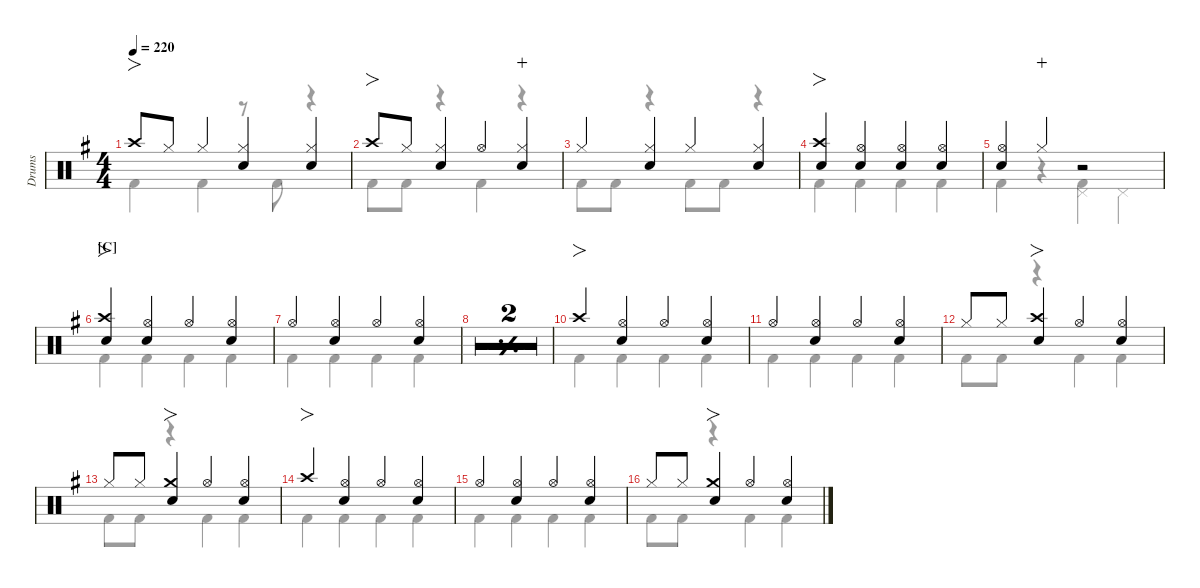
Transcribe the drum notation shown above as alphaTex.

\hideDynamics
\bracketExtendMode nobrackets
\multiBarRest
\otherSystemsTrackNameOrientation horizontal
\track ("Drums" "Drums") {defaultSystemsLayout 4 multiBarRest instrument percussion}
\staff {score}
\articulation defaults
\voice
\ts (4 4)
\tempo 220
\clef neutral
\scale
0.97879
\ks g "Crash high (hit)"{acc forcenatural}.8{fo dy f beam Up} "Hi-Hat (closed)"{acc forcenatural}.8{dy mp beam Up} "Hi-Hat (closed)"{acc forcenatural}.4{dy f beam Up}
("Hi-Hat (closed)"{acc forcenatural} "Snare (hit) 2"{acc forcenatural}).4{beam Up} ("Hi-Hat (closed)"{acc forcenatural} "Snare (hit) 2"{acc forcenatural}).4{beam Up} |
\scale
1.05921 "Crash high (hit)"{acc forcenatural}.8{fo beam Up} "Hi-Hat (closed)"{acc forcenatural}.8{dy mp beam Up} ("Hi-Hat (closed)"{acc forcenatural} "Snare (hit) 2"{acc forcenatural}).4{dy f beam Up} "Hi-Hat (open)"{acc forcenatural}.4{beam Up} ("Snare (hit) 2"{acc forcenatural} "Hi-Hat (closed)"{acc forcenatural}).4{wahc beam Up} |
\scale
0.974368 "Hi-Hat (closed)"{acc forcenatural}.4{beam Up} ("Hi-Hat (closed)"{acc forcenatural} "Snare (hit) 2"{acc forcenatural}).4{beam Up} "Hi-Hat (closed)"{acc forcenatural}.4{beam Up} ("Hi-Hat (closed)"{acc forcenatural} "Snare (hit) 2"{acc forcenatural}).4{beam Up} |
\scale
0.974368 ("Crash high (hit)"{acc forcenatural} "Snare (hit) 2"{acc forcenatural}).4{fo beam Up} ("Hi-Hat (open)"{acc forcenatural} "Snare (hit) 2"{acc forcenatural}).4{beam Up} ("Hi-Hat (open)"{acc forcenatural} "Snare (hit) 2"{acc forcenatural}).4{beam Up} ("Hi-Hat (open)"{acc forcenatural} "Snare (hit) 2"{acc forcenatural}).4{beam Up} |
\scale
0.992053 ("Hi-Hat (open)"{acc forcenatural} "Snare (hit) 2"{acc forcenatural}).4{beam Up} "Hi-Hat (closed)"{acc forcenatural}.4{dy mp wahc beam Up} r.2{beam Up} |
\section ("C" "")
\scale
1.06363 ("Crash high (hit)"{acc forcenatural} "Snare (hit) 2"{acc forcenatural}).4{fo dy f beam Up} ("Hi-Hat (open)"{acc forcenatural} "Snare (hit) 2"{acc forcenatural}).4{beam Up} "Hi-Hat (open)"{acc forcenatural}.4{beam Up} ("Hi-Hat (open)"{acc forcenatural} "Snare (hit) 2"{acc forcenatural}).4{beam Up} |
\scale
0.97879 "Hi-Hat (open)"{acc forcenatural}.4{beam Up} ("Hi-Hat (open)"{acc forcenatural} "Snare (hit) 2"{acc forcenatural}).4{beam Up} "Hi-Hat (open)"{acc forcenatural}.4{beam Up} ("Hi-Hat (open)"{acc forcenatural} "Snare (hit) 2"{acc forcenatural}).4{beam Up} |
\simile simple
\scale
0.97879 |
\scale
0.97879 |
\simile none
\scale
1.06363 "Crash high (hit)"{acc forcenatural}.4{fo beam Up} ("Hi-Hat (open)"{acc forcenatural} "Snare (hit) 2"{acc forcenatural}).4{beam Up} "Hi-Hat (open)"{acc forcenatural}.4{beam Up} ("Hi-Hat (open)"{acc forcenatural} "Snare (hit) 2"{acc forcenatural}).4{beam Up} |
\scale
0.97879 "Hi-Hat (open)"{acc forcenatural}.4{beam Up} ("Hi-Hat (open)"{acc forcenatural} "Snare (hit) 2"{acc forcenatural}).4{beam Up} "Hi-Hat (open)"{acc forcenatural}.4{beam Up} ("Hi-Hat (open)"{acc forcenatural} "Snare (hit) 2"{acc forcenatural}).4{beam Up} |
\scale
0.97879 "Hi-Hat (closed)"{acc forcenatural}.8{beam Up} "Hi-Hat (closed)"{acc forcenatural}.8{dy mf beam Up} ("Crash high (hit)"{acc forcenatural} "Snare (hit) 2"{acc forcenatural}).4{fo dy f beam Up} "Hi-Hat (open)"{acc forcenatural}.4{beam Up} ("Hi-Hat (open)"{acc forcenatural} "Snare (hit) 2"{acc forcenatural}).4{beam Up} |
\scale
0.97879 "Hi-Hat (closed)"{acc forcenatural}.8{beam Up} "Hi-Hat (closed)"{acc forcenatural}.8{dy mf beam Up} ("Crash medium (hit)"{acc forcenatural} "Snare (hit) 2"{acc forcenatural}).4{fo dy f beam Up} "Hi-Hat (open)"{acc forcenatural}.4{beam Up} ("Hi-Hat (open)"{acc forcenatural} "Snare (hit) 2"{acc forcenatural}).4{beam Up} |
\scale
1.06363 "Crash high (hit)"{acc forcenatural}.4{fo beam Up} ("Hi-Hat (open)"{acc forcenatural} "Snare (hit) 2"{acc forcenatural}).4{beam Up} "Hi-Hat (open)"{acc forcenatural}.4{beam Up} ("Hi-Hat (open)"{acc forcenatural} "Snare (hit) 2"{acc forcenatural}).4{beam Up} |
\scale
0.97879 "Hi-Hat (open)"{acc forcenatural}.4{beam Up} ("Hi-Hat (open)"{acc forcenatural} "Snare (hit) 2"{acc forcenatural}).4{beam Up} "Hi-Hat (open)"{acc forcenatural}.4{beam Up} ("Hi-Hat (open)"{acc forcenatural} "Snare (hit) 2"{acc forcenatural}).4{beam Up} |
\scale
0.97879 "Hi-Hat (closed)"{acc forcenatural}.8{beam Up} "Hi-Hat (closed)"{acc forcenatural}.8{dy mf beam Up} ("Crash medium (hit)"{acc forcenatural} "Snare (hit) 2"{acc forcenatural}).4{fo dy f beam Up} "Hi-Hat (open)"{acc forcenatural}.4{beam Up} ("Hi-Hat (open)"{acc forcenatural} "Snare (hit) 2"{acc forcenatural}).4{beam Up}
\voice
\clef neutral
\ottava regular
\simile none
\scale
0.97879
\ks g "Kick (hit) 2"{acc forcenatural}.4{dy f beam Down} "Kick (hit) 2"{acc forcenatural}.4{beam Down}
r.8{beam Down} "Kick (hit) 2"{acc forcenatural}.8{beam Down} r.4{beam Down} |
\scale
1.05921 "Kick (hit) 2"{acc forcenatural}.8{beam Down} "Kick (hit) 2"{acc forcenatural}.8{beam Down} r.4{beam Down} "Kick (hit) 2"{acc forcenatural}.4{beam Down} r.4{beam Down} |
\scale
0.974368 "Kick (hit) 2"{acc forcenatural}.8{beam Down} "Kick (hit) 2"{acc forcenatural}.8{beam Down} r.4{beam Down} "Kick (hit) 2"{acc forcenatural}.8{beam Down} "Kick (hit) 2"{acc forcenatural}.8{beam Down} r.4{beam Down} |
\scale
0.974368 "Kick (hit) 2"{acc forcenatural}.4{beam Down} "Kick (hit) 2"{acc forcenatural}.4{beam Down} "Kick (hit) 2"{acc forcenatural}.4{beam Down} "Kick (hit) 2"{acc forcenatural}.4{beam Down} |
\scale
0.992053 "Kick (hit) 2"{acc forcenatural}.4{beam Down} r.4{beam Down} ("Kick (hit) 2"{acc forcenatural} "Pedal Hi-Hat (hit)"{acc forcenatural}).4{beam Down} "Pedal Hi-Hat (hit)"{acc forcenatural}.4{beam Down} |
\scale
1.06363 "Kick (hit) 2"{acc forcenatural}.4{beam Down} "Kick (hit) 2"{acc forcenatural}.4{beam Down} "Kick (hit) 2"{acc forcenatural}.4{beam Down} "Kick (hit) 2"{acc forcenatural}.4{beam Down} |
\scale
0.97879 "Kick (hit) 2"{acc forcenatural}.4{beam Down} "Kick (hit) 2"{acc forcenatural}.4{beam Down} "Kick (hit) 2"{acc forcenatural}.4{beam Down} "Kick (hit) 2"{acc forcenatural}.4{beam Down} |
\simile simple
\scale
0.97879 |
\scale
0.97879 |
\simile none
\scale
1.06363 "Kick (hit) 2"{acc forcenatural}.4{beam Down} "Kick (hit) 2"{acc forcenatural}.4{beam Down} "Kick (hit) 2"{acc forcenatural}.4{beam Down} "Kick (hit) 2"{acc forcenatural}.4{beam Down} |
\scale
0.97879 "Kick (hit) 2"{acc forcenatural}.4{beam Down} "Kick (hit) 2"{acc forcenatural}.4{beam Down} "Kick (hit) 2"{acc forcenatural}.4{beam Down} "Kick (hit) 2"{acc forcenatural}.4{beam Down} |
\scale
0.97879 "Kick (hit) 2"{acc forcenatural}.8{beam Down} "Kick (hit) 2"{acc forcenatural}.8{beam Down} r.4{beam Down} "Kick (hit) 2"{acc forcenatural}.4{beam Down} "Kick (hit) 2"{acc forcenatural}.4{beam Down} |
\scale
0.97879 "Kick (hit) 2"{acc forcenatural}.8{beam Down} "Kick (hit) 2"{acc forcenatural}.8{beam Down} r.4{beam Down} "Kick (hit) 2"{acc forcenatural}.4{beam Down} "Kick (hit) 2"{acc forcenatural}.4{beam Down} |
\scale
1.06363 "Kick (hit) 2"{acc forcenatural}.4{beam Down} "Kick (hit) 2"{acc forcenatural}.4{beam Down} "Kick (hit) 2"{acc forcenatural}.4{beam Down} "Kick (hit) 2"{acc forcenatural}.4{beam Down} |
\scale
0.97879 "Kick (hit) 2"{acc forcenatural}.4{beam Down} "Kick (hit) 2"{acc forcenatural}.4{beam Down} "Kick (hit) 2"{acc forcenatural}.4{beam Down} "Kick (hit) 2"{acc forcenatural}.4{beam Down} |
\scale
0.97879 "Kick (hit) 2"{acc forcenatural}.8{beam Down} "Kick (hit) 2"{acc forcenatural}.8{beam Down} r.4{beam Down} "Kick (hit) 2"{acc forcenatural}.4{beam Down} "Kick (hit) 2"{acc forcenatural}.4{beam Down}
